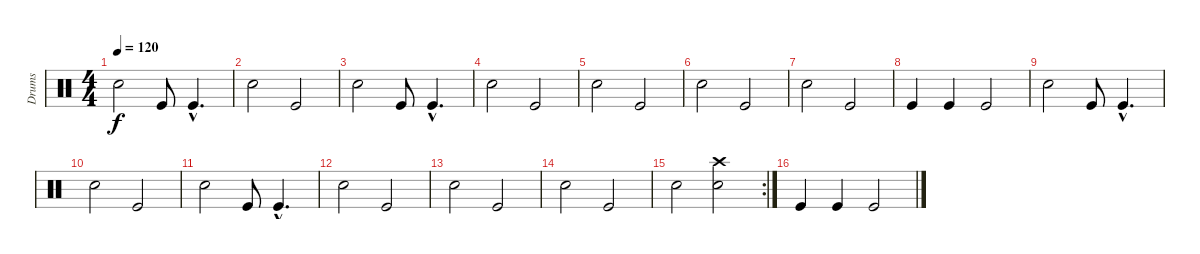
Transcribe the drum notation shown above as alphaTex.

\track ("Drums" "Drums") {instrument percussion}
\staff {score}
\articulation defaults
\ts (4 4)
\tempo 120
\clef neutral
\ks c "Snare (hit) 2".2{dy f} "Kick (hit)".8 "Kick (hit)"{hac}.4{d}
|
"Snare (hit) 2".2 "Kick (hit)".2 |
"Snare (hit) 2".2 "Kick (hit)".8 "Kick (hit)"{hac}.4{d} |
"Snare (hit) 2".2 "Kick (hit)".2 |
"Snare (hit) 2".2 "Kick (hit)".2 |
"Snare (hit) 2".2 "Kick (hit)".2 |
"Snare (hit) 2".2 "Kick (hit)".2 |
"Kick (hit)".4 "Kick (hit)".4 "Kick (hit)".2 |
"Snare (hit) 2".2 "Kick (hit)".8 "Kick (hit)"{hac}.4{d} |
"Snare (hit) 2".2 "Kick (hit)".2 |
"Snare (hit) 2".2 "Kick (hit)".8 "Kick (hit)"{hac}.4{d} |
"Snare (hit) 2".2 "Kick (hit)".2 |
"Snare (hit) 2".2 "Kick (hit)".2 |
"Snare (hit) 2".2 "Kick (hit)".2 |
\rc 2 "Snare (hit) 2".2
("Electric Snare (hit)" "Crash high (hit)").2 |
"Kick (hit)".4{volume 14} "Kick (hit)".4{volume 12} "Kick (hit)".2{volume 10}
